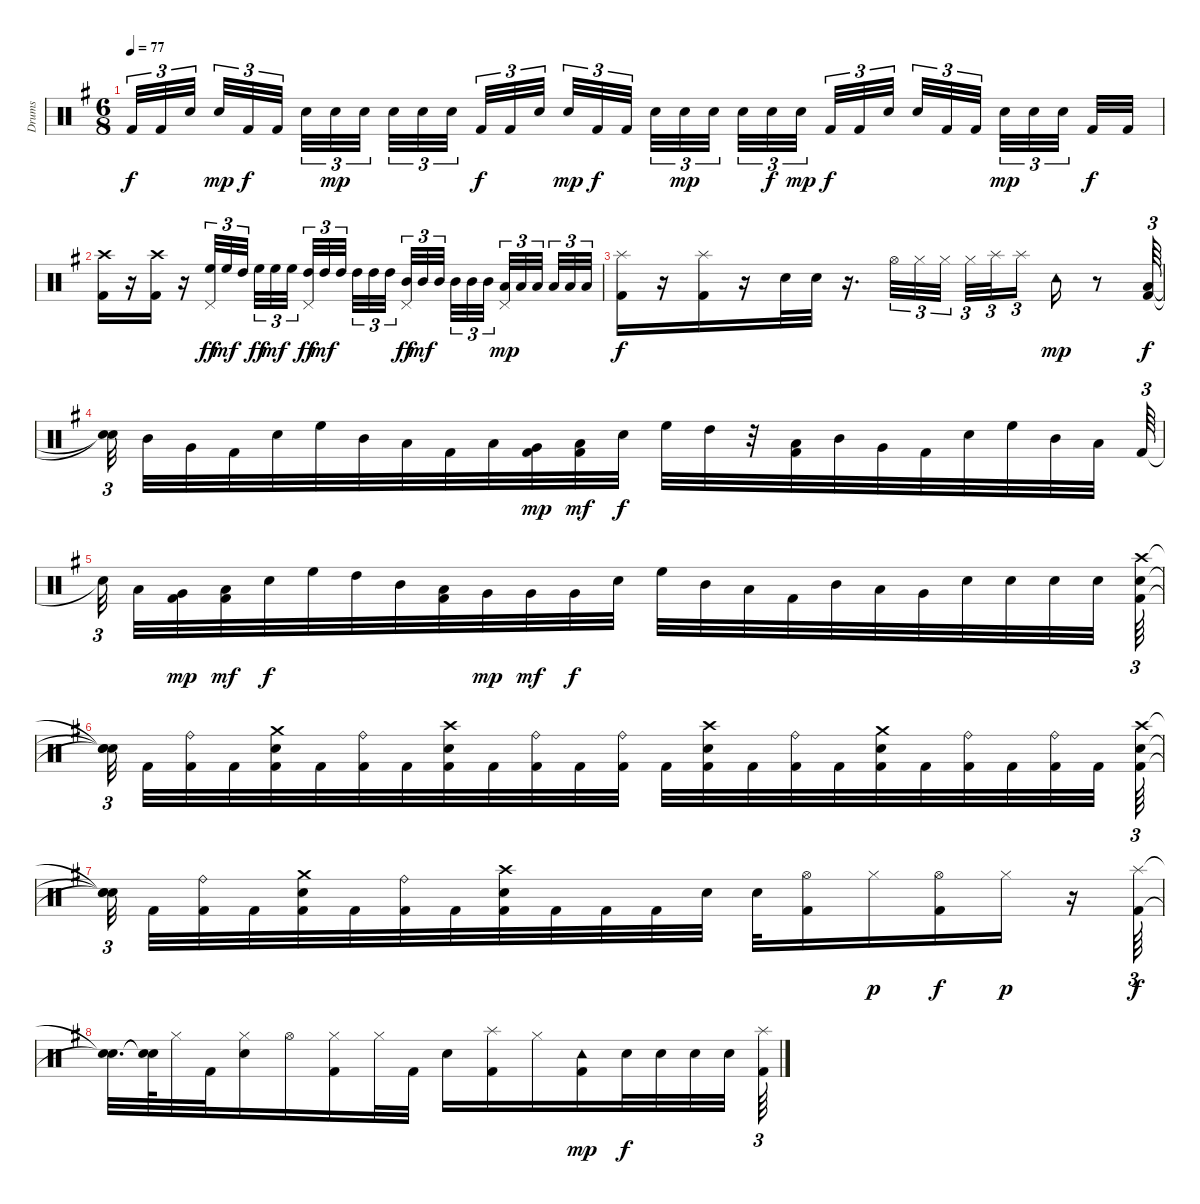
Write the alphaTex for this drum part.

\track ("Drums" "Drums") {instrument percussion}
\staff {score}
\articulation defaults
\ts (6 8)
\tempo 77
\clef neutral
\ks g "Kick (hit) 2".32{tu (3 2) dy f} "Kick (hit) 2".32{tu (3 2)} "Electric Snare (hit)".32{tu (3 2) beam splitsecondary} "Electric Snare (hit)".32{tu (3 2) dy mp} "Kick (hit) 2".32{tu (3 2) dy f} "Kick (hit) 2".32{tu (3 2) beam splitsecondary} "Electric Snare (hit)".32{tu (3 2)} "Electric Snare (hit)".32{tu (3 2) dy mp} "Electric Snare (hit)".32{tu (3 2) beam splitsecondary} "Electric Snare (hit)".32{tu (3 2)} "Electric Snare (hit)".32{tu (3 2)} "Electric Snare (hit)".32{tu (3 2) beam splitsecondary} "Kick (hit) 2".32{tu (3 2) dy f} "Kick (hit) 2".32{tu (3 2)} "Electric Snare (hit)".32{tu (3 2) beam splitsecondary} "Electric Snare (hit)".32{tu (3 2) dy mp} "Kick (hit) 2".32{tu (3 2) dy f} "Kick (hit) 2".32{tu (3 2)} "Electric Snare (hit)".32{tu (3 2)} "Electric Snare (hit)".32{tu (3 2) dy mp} "Electric Snare (hit)".32{tu (3 2) beam splitsecondary} "Electric Snare (hit)".32{tu (3 2)} "Electric Snare (hit)".32{tu (3 2) dy f} "Electric Snare (hit)".32{tu (3 2) dy mp beam splitsecondary} "Kick (hit) 2".32{tu (3 2) dy f} "Kick (hit) 2".32{tu (3 2)} "Electric Snare (hit)".32{tu (3 2) beam splitsecondary} "Electric Snare (hit)".32{tu (3 2)} "Kick (hit) 2".32{tu (3 2)} "Kick (hit) 2".32{tu (3 2) beam splitsecondary} "Electric Snare (hit)".32{tu (3 2) dy mp} "Electric Snare (hit)".32{tu (3 2)} "Electric Snare (hit)".32{tu (3 2) beam splitsecondary} "Kick (hit) 2".32{dy f} "Kick (hit) 2".32
|
("Crash high (hit)" "Kick (hit) 2").16 r.16 ("Kick (hit) 2" "Crash high (hit)").16 r.16 ("High Floor Tom (hit)" "Pedal Hi-Hat (hit)").32{tu (3 2) dy ff} "High Floor Tom (hit)".32{tu (3 2) dy mf} "High Tom (hit)".32{tu (3 2) beam splitsecondary} "High Floor Tom (hit)".32{tu (3 2) dy ff} "High Floor Tom (hit)".32{tu (3 2) dy mf} "High Floor Tom (hit)".32{tu (3 2)} ("Pedal Hi-Hat (hit)" "High Tom (hit)").32{tu (3 2) dy ff} "High Tom (hit)".32{tu (3 2) dy mf} "High Tom (hit)".32{tu (3 2) beam splitsecondary} "High Tom (hit)".32{tu (3 2)} "High Tom (hit)".32{tu (3 2)} "High Tom (hit)".32{tu (3 2) beam splitsecondary} ("Pedal Hi-Hat (hit)" "Mid Tom (hit)").32{tu (3 2) dy ff} "Mid Tom (hit)".32{tu (3 2) dy mf} "Mid Tom (hit)".32{tu (3 2) beam splitsecondary} "Mid Tom (hit)".32{tu (3 2)} "Mid Tom (hit)".32{tu (3 2)} "Mid Tom (hit)".32{tu (3 2) beam splitsecondary} ("Pedal Hi-Hat (hit)" "Low Tom (hit)").32{tu (3 2) dy mp} "Low Tom (hit)".32{tu (3 2)} "Low Tom (hit)".32{tu (3 2) beam splitsecondary} "Low Tom (hit)".32{tu (3 2)} "Low Tom (hit)".32{tu (3 2)} "Low Tom (hit)".32{tu (3 2)} |
("Kick (hit) 2" "Splash (hit)").16{dy f} r.16 ("Splash (hit)" "Kick (hit) 2").16 r.16 "Electric Snare (hit)".32 "Electric Snare (hit)".32 r.16{d} "Hi-Hat (open)".32{tu (3 2)} "Hi-Hat (closed)".32{tu (3 2)} "Hi-Hat (closed)".32{tu (3 2) beam splitsecondary} "Hi-Hat (closed)".32{tu (3 2)} "Splash (hit)".32{tu (3 2)} "Splash (hit)".16{tu (3 2) beam splitsecondary} "Tambourine (hit)".16{dy mp} r.8 ("Low Tom (hit)" "Kick (hit) 2").64{tu (3 2) dy f} |
("Snare (hit)"{t} "Snare (hit)"{t}).32{tu (3 2) beam splitsecondary} "Mid Tom (hit)".32 "Very Low Tom (hit)".32 "Kick (hit) 2".32 "Electric Snare (hit)".32 "High Floor Tom (hit)".32 "Mid Tom (hit)".32 "Low Tom (hit)".32 "Kick (hit) 2".32 "Low Tom (hit)".32 ("Very Low Tom (hit)" "Kick (hit) 2").32{dy mp} ("Kick (hit) 2" "Low Floor Tom (hit)").32{dy mf} "Electric Snare (hit)".32{dy f} "High Floor Tom (hit)".32 "High Tom (hit)".32 r.32 ("Kick (hit) 2" "Low Tom (hit)").32 "Mid Tom (hit)".32 "Very Low Tom (hit)".32 "Kick (hit) 2".32 "Electric Snare (hit)".32 "High Floor Tom (hit)".32 "Mid Tom (hit)".32 "Low Tom (hit)".32{beam splitsecondary} "Kick (hit) 2".64{tu (3 2)} |
"Snare (hit)"{t}.32{tu (3 2) beam splitsecondary} "Low Tom (hit)".32 ("Very Low Tom (hit)" "Kick (hit) 2").32{dy mp} ("Kick (hit) 2" "Low Floor Tom (hit)").32{dy mf} "Electric Snare (hit)".32{dy f} "High Floor Tom (hit)".32 "High Tom (hit)".32 "Mid Tom (hit)".32 ("Kick (hit) 2" "Low Tom (hit)").32 "Very Low Tom (hit)".32{dy mp} "Very Low Tom (hit)".32{dy mf} "Very Low Tom (hit)".32{dy f} "Electric Snare (hit)".32 "High Floor Tom (hit)".32 "Mid Tom (hit)".32 "Low Tom (hit)".32 "Kick (hit) 2".32 "Mid Tom (hit)".32 "Low Tom (hit)".32 "Very Low Tom (hit)".32 "Electric Snare (hit)".32 "Electric Snare (hit)".32 "Electric Snare (hit)".32 "Electric Snare (hit)".32{beam splitsecondary} ("Crash high (hit)" "Kick (hit) 2" "Electric Snare (hit)").64{tu (3 2)} |
("Snare (hit)"{t} "Snare (hit)"{t} "Snare (hit)"{t}).32{tu (3 2) beam splitsecondary} "Kick (hit) 2".32 ("Kick (hit) 2" "Ride (bell)").32 "Kick (hit) 2".32 ("Kick (hit) 2" "Electric Snare (hit)" "Crash medium (hit)").32 "Kick (hit) 2".32 ("Kick (hit) 2" "Ride (bell)").32 "Kick (hit) 2".32 ("Kick (hit) 2" "Electric Snare (hit)" "Crash high (hit)").32 "Kick (hit) 2".32 ("Kick (hit) 2" "Ride (bell)").32 "Kick (hit) 2".32 ("Kick (hit) 2" "Ride (bell)").32 "Kick (hit) 2".32 ("Kick (hit) 2" "Electric Snare (hit)" "Crash high (hit)").32 "Kick (hit) 2".32 ("Kick (hit) 2" "Ride (bell)").32 "Kick (hit) 2".32 ("Kick (hit) 2" "Electric Snare (hit)" "Crash medium (hit)").32 "Kick (hit) 2".32 ("Kick (hit) 2" "Ride (bell)").32 "Kick (hit) 2".32 ("Kick (hit) 2" "Ride (bell)").32 "Kick (hit) 2".32{beam splitsecondary} ("Electric Snare (hit)" "Kick (hit) 2" "Crash high (hit)").64{tu (3 2)} |
("Snare (hit)"{t} "Snare (hit)"{t} "Snare (hit)"{t}).32{tu (3 2) beam splitsecondary} "Kick (hit) 2".32 ("Kick (hit) 2" "Ride (bell)").32 "Kick (hit) 2".32 ("Kick (hit) 2" "Electric Snare (hit)" "Crash medium (hit)").32 "Kick (hit) 2".32 ("Kick (hit) 2" "Ride (bell)").32 "Kick (hit) 2".32 ("Kick (hit) 2" "Electric Snare (hit)" "Crash high (hit)").32 "Kick (hit) 2".32 "Kick (hit) 2".32 "Kick (hit) 2".32 "Electric Snare (hit)".32 "Electric Snare (hit)".32 ("Kick (hit) 2" "Hi-Hat (open)").16 "Hi-Hat (closed)".16{dy p} ("Kick (hit) 2" "Hi-Hat (open)").16{dy f} "Hi-Hat (closed)".16{dy p} r.16 ("Kick (hit) 2" "Splash (hit)").64{tu (3 2) dy f} |
("Snare (hit)"{t} "Snare (hit)"{t}).32{d} ("Snare (hit)"{t} "Snare (hit)"{t}).64 "Hi-Hat (closed)".32 "Kick (hit) 2".32 ("Electric Snare (hit)" "Hi-Hat (closed)").16 "Hi-Hat (open)".16 ("Kick (hit) 2" "Hi-Hat (closed)").16 "Hi-Hat (closed)".32 "Kick (hit) 2".32 "Electric Snare (hit)".16 ("Kick (hit) 2" "Splash (hit)").16 "Hi-Hat (closed)".16 ("Kick (hit) 2" "Tambourine (hit)").16{dy mp} "Electric Snare (hit)".32{dy f} "Electric Snare (hit)".32 "Electric Snare (hit)".32 "Electric Snare (hit)".32 ("Splash (hit)" "Kick (hit) 2").64{tu (3 2)}
